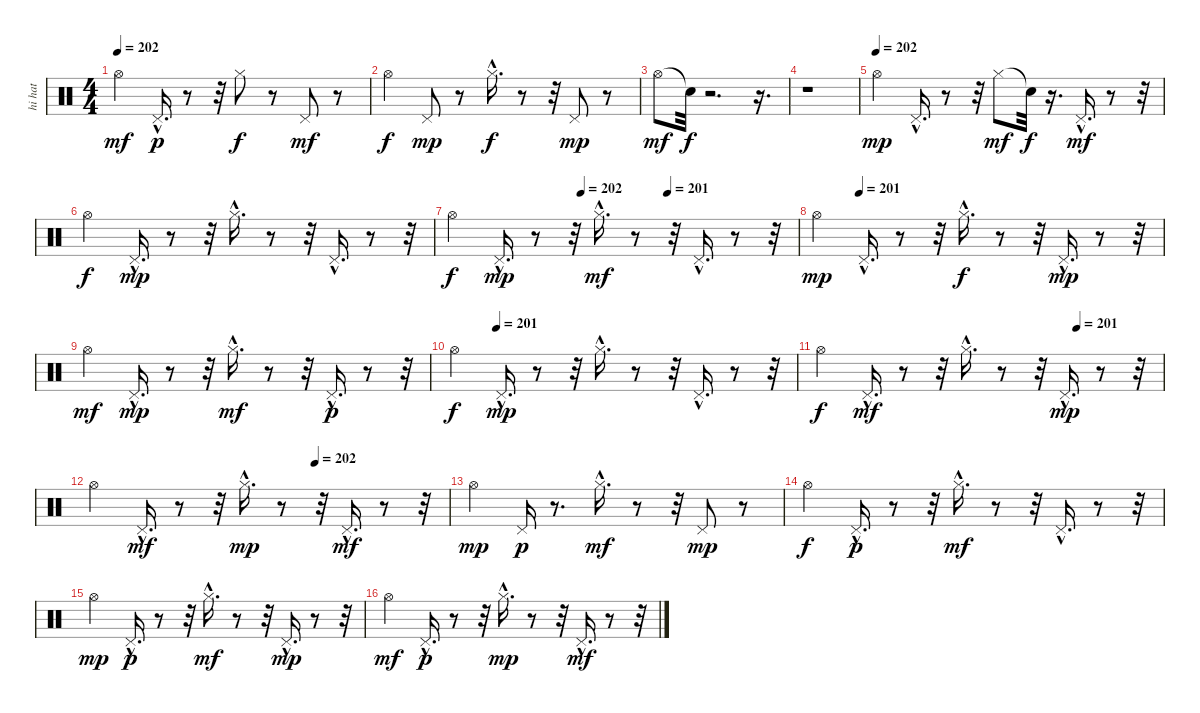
\track ("hi hat" "hi hat") {instrument percussion}
\staff {score}
\articulation defaults
\ts (4 4)
\tempo 202
\clef neutral
\ks c "Hi-Hat (open)".4{dy mf} "Pedal Hi-Hat (hit)"{hac}.16{d dy p}
r.8 r.32 "Hi-Hat (closed)".8{dy f} r.8 "Pedal Hi-Hat (hit)".8{dy mf} r.8 |
"Hi-Hat (open)".4{dy f} "Pedal Hi-Hat (hit)".8{dy mp} r.8 "Hi-Hat (closed)"{hac}.16{d dy f} r.8 r.32 "Pedal Hi-Hat (hit)".8{dy mp} r.8 |
"Hi-Hat (open)".8{dy mf} "Snare (hit)"{t}.32{dy f} r.2{d} r.16{d} |
r.1 |
\tempo (202)
"Hi-Hat (open)".4{dy mp} "Pedal Hi-Hat (hit)"{hac}.16{d} r.8 r.32 "Hi-Hat (closed)".8{dy mf} "Snare (hit)"{t}.32{dy f} r.16{d} "Pedal Hi-Hat (hit)"{hac}.16{d dy mf} r.8 r.32 |
"Hi-Hat (open)".4{dy f} "Pedal Hi-Hat (hit)"{hac}.16{d dy mp} r.8 r.32 "Hi-Hat (closed)"{hac}.16{d} r.8 r.32 "Pedal Hi-Hat (hit)"{hac}.16{d} r.8 r.32 |
\tempo (202 0.375)
\tempo (201 0.625)
"Hi-Hat (open)".4{dy f} "Pedal Hi-Hat (hit)"{hac}.16{d dy mp} r.8 r.32 "Hi-Hat (closed)"{hac}.16{d dy mf} r.8 r.32 "Pedal Hi-Hat (hit)"{hac}.16{d} r.8 r.32 |
\tempo (201 0.125)
"Hi-Hat (open)".4{dy mp} "Pedal Hi-Hat (hit)"{hac}.16{d} r.8 r.32 "Hi-Hat (closed)"{hac}.16{d dy f} r.8 r.32 "Pedal Hi-Hat (hit)"{hac}.16{d dy mp} r.8 r.32 |
"Hi-Hat (open)".4{dy mf} "Pedal Hi-Hat (hit)"{hac}.16{d dy mp} r.8 r.32 "Hi-Hat (closed)"{hac}.16{d dy mf} r.8 r.32 "Pedal Hi-Hat (hit)"{hac}.16{d dy p} r.8 r.32 |
\tempo (201 0.125)
"Hi-Hat (open)".4{dy f} "Pedal Hi-Hat (hit)"{hac}.16{d dy mp} r.8 r.32 "Hi-Hat (closed)"{hac}.16{d} r.8 r.32 "Pedal Hi-Hat (hit)"{hac}.16{d} r.8 r.32 |
\tempo (201 0.75)
"Hi-Hat (open)".4{dy f} "Pedal Hi-Hat (hit)"{hac}.16{d dy mf} r.8 r.32 "Hi-Hat (closed)"{hac}.16{d} r.8 r.32 "Pedal Hi-Hat (hit)"{hac}.16{d dy mp} r.8 r.32 |
\tempo (202 0.625)
"Hi-Hat (open)".4 "Pedal Hi-Hat (hit)"{hac}.16{d dy mf} r.8 r.32 "Hi-Hat (closed)"{hac}.16{d dy mp} r.8 r.32 "Pedal Hi-Hat (hit)"{hac}.16{d dy mf} r.8 r.32 |
"Hi-Hat (open)".4{dy mp} "Pedal Hi-Hat (hit)".16{dy p} r.8{d} "Hi-Hat (closed)"{hac}.16{d dy mf} r.8 r.32 "Pedal Hi-Hat (hit)".8{dy mp} r.8 |
"Hi-Hat (open)".4{dy f} "Pedal Hi-Hat (hit)"{hac}.16{d dy p} r.8 r.32 "Hi-Hat (closed)"{hac}.16{d dy mf} r.8 r.32 "Pedal Hi-Hat (hit)"{hac}.16{d} r.8 r.32 |
"Hi-Hat (open)".4{dy mp} "Pedal Hi-Hat (hit)"{hac}.16{d dy p} r.8 r.32 "Hi-Hat (closed)"{hac}.16{d dy mf} r.8 r.32 "Pedal Hi-Hat (hit)"{hac}.16{d dy mp} r.8 r.32 |
"Hi-Hat (open)".4{dy mf} "Pedal Hi-Hat (hit)"{hac}.16{d dy p} r.8 r.32 "Hi-Hat (closed)"{hac}.16{d dy mp} r.8 r.32 "Pedal Hi-Hat (hit)"{hac}.16{d dy mf} r.8 r.32
